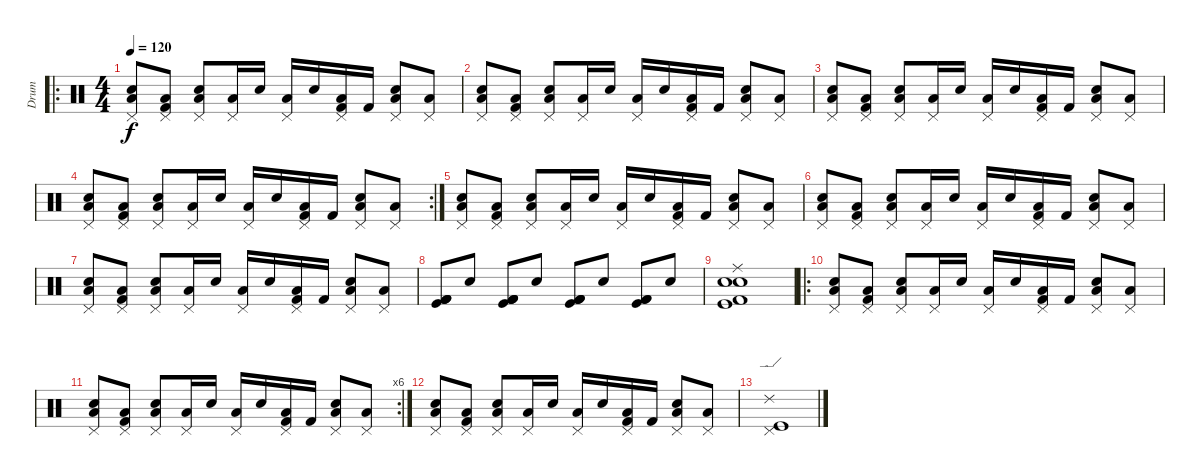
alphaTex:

\track ("Drum" "Drum") {instrument percussion}
\staff {score}
\articulation defaults
\ro
\ts (4 4)
\tempo 120
\clef neutral
\ks c
("Pedal Hi-Hat (hit)" "Low Floor Tom (hit)" "Snare (hit) 2").8{dy f} ("Pedal Hi-Hat (hit)" "Low Floor Tom (hit)" "Kick (hit) 2").8 ("Pedal Hi-Hat (hit)" "Low Floor Tom (hit)" "Snare (hit) 2").8 ("Pedal Hi-Hat (hit)" "Low Floor Tom (hit)").16 "Snare (hit) 2".16 ("Pedal Hi-Hat (hit)" "Low Floor Tom (hit)").16 "Snare (hit) 2".16 ("Pedal Hi-Hat (hit)" "Low Floor Tom (hit)" "Kick (hit) 2").16 "Kick (hit) 2".16 ("Pedal Hi-Hat (hit)" "Low Floor Tom (hit)" "Snare (hit) 2").8 ("Pedal Hi-Hat (hit)" "Low Floor Tom (hit)").8 |
("Pedal Hi-Hat (hit)" "Low Floor Tom (hit)" "Snare (hit) 2").8 ("Pedal Hi-Hat (hit)" "Low Floor Tom (hit)" "Kick (hit) 2").8 ("Pedal Hi-Hat (hit)" "Low Floor Tom (hit)" "Snare (hit) 2").8 ("Pedal Hi-Hat (hit)" "Low Floor Tom (hit)").16 "Snare (hit) 2".16 ("Pedal Hi-Hat (hit)" "Low Floor Tom (hit)").16 "Snare (hit) 2".16 ("Pedal Hi-Hat (hit)" "Low Floor Tom (hit)" "Kick (hit) 2").16 "Kick (hit) 2".16 ("Pedal Hi-Hat (hit)" "Low Floor Tom (hit)" "Snare (hit) 2").8 ("Pedal Hi-Hat (hit)" "Low Floor Tom (hit)").8 |
("Pedal Hi-Hat (hit)" "Low Floor Tom (hit)" "Snare (hit) 2").8 ("Pedal Hi-Hat (hit)" "Low Floor Tom (hit)" "Kick (hit) 2").8 ("Pedal Hi-Hat (hit)" "Low Floor Tom (hit)" "Snare (hit) 2").8 ("Pedal Hi-Hat (hit)" "Low Floor Tom (hit)").16 "Snare (hit) 2".16 ("Pedal Hi-Hat (hit)" "Low Floor Tom (hit)").16 "Snare (hit) 2".16 ("Pedal Hi-Hat (hit)" "Low Floor Tom (hit)" "Kick (hit) 2").16 "Kick (hit) 2".16 ("Pedal Hi-Hat (hit)" "Low Floor Tom (hit)" "Snare (hit) 2").8 ("Pedal Hi-Hat (hit)" "Low Floor Tom (hit)").8 |
\rc 2
("Pedal Hi-Hat (hit)" "Low Floor Tom (hit)" "Snare (hit) 2").8 ("Pedal Hi-Hat (hit)" "Low Floor Tom (hit)" "Kick (hit) 2").8 ("Pedal Hi-Hat (hit)" "Low Floor Tom (hit)" "Snare (hit) 2").8 ("Pedal Hi-Hat (hit)" "Low Floor Tom (hit)").16 "Snare (hit) 2".16 ("Pedal Hi-Hat (hit)" "Low Floor Tom (hit)").16 "Snare (hit) 2".16 ("Pedal Hi-Hat (hit)" "Low Floor Tom (hit)" "Kick (hit) 2").16 "Kick (hit) 2".16 ("Pedal Hi-Hat (hit)" "Low Floor Tom (hit)" "Snare (hit) 2").8 ("Pedal Hi-Hat (hit)" "Low Floor Tom (hit)").8 |
("Pedal Hi-Hat (hit)" "Low Floor Tom (hit)" "Snare (hit) 2").8 ("Pedal Hi-Hat (hit)" "Low Floor Tom (hit)" "Kick (hit) 2").8 ("Pedal Hi-Hat (hit)" "Low Floor Tom (hit)" "Snare (hit) 2").8 ("Pedal Hi-Hat (hit)" "Low Floor Tom (hit)").16 "Snare (hit) 2".16 ("Pedal Hi-Hat (hit)" "Low Floor Tom (hit)").16 "Snare (hit) 2".16 ("Pedal Hi-Hat (hit)" "Low Floor Tom (hit)" "Kick (hit) 2").16 "Kick (hit) 2".16 ("Pedal Hi-Hat (hit)" "Low Floor Tom (hit)" "Snare (hit) 2").8 ("Pedal Hi-Hat (hit)" "Low Floor Tom (hit)").8 |
("Pedal Hi-Hat (hit)" "Low Floor Tom (hit)" "Snare (hit) 2").8 ("Pedal Hi-Hat (hit)" "Low Floor Tom (hit)" "Kick (hit) 2").8 ("Pedal Hi-Hat (hit)" "Low Floor Tom (hit)" "Snare (hit) 2").8 ("Pedal Hi-Hat (hit)" "Low Floor Tom (hit)").16 "Snare (hit) 2".16 ("Pedal Hi-Hat (hit)" "Low Floor Tom (hit)").16 "Snare (hit) 2".16 ("Pedal Hi-Hat (hit)" "Low Floor Tom (hit)" "Kick (hit) 2").16 "Kick (hit) 2".16 ("Pedal Hi-Hat (hit)" "Low Floor Tom (hit)" "Snare (hit) 2").8 ("Pedal Hi-Hat (hit)" "Low Floor Tom (hit)").8 |
("Pedal Hi-Hat (hit)" "Low Floor Tom (hit)" "Snare (hit) 2").8 ("Pedal Hi-Hat (hit)" "Low Floor Tom (hit)" "Kick (hit) 2").8 ("Pedal Hi-Hat (hit)" "Low Floor Tom (hit)" "Snare (hit) 2").8 ("Pedal Hi-Hat (hit)" "Low Floor Tom (hit)").16 "Snare (hit) 2".16 ("Pedal Hi-Hat (hit)" "Low Floor Tom (hit)").16 "Snare (hit) 2".16 ("Pedal Hi-Hat (hit)" "Low Floor Tom (hit)" "Kick (hit) 2").16 "Kick (hit) 2".16 ("Pedal Hi-Hat (hit)" "Low Floor Tom (hit)" "Snare (hit) 2").8 ("Pedal Hi-Hat (hit)" "Low Floor Tom (hit)").8 |
("Kick (hit)" "Kick (hit) 2" "Kick (hit) 2" "Kick (hit) 2").8 "Electric Snare (hit)".8 ("Kick (hit)" "Kick (hit) 2" "Kick (hit) 2" "Kick (hit) 2").8 "Electric Snare (hit)".8 ("Kick (hit)" "Kick (hit) 2" "Kick (hit) 2" "Kick (hit) 2").8 "Electric Snare (hit)".8 ("Kick (hit)" "Kick (hit) 2" "Kick (hit) 2").8 "Electric Snare (hit)".8 |
("Kick (hit)" "Ride (middle)" "Kick (hit) 2" "Electric Snare (hit)" "Snare (hit) 2").1 |
\ro
("Pedal Hi-Hat (hit)" "Low Floor Tom (hit)" "Snare (hit) 2").8 ("Pedal Hi-Hat (hit)" "Low Floor Tom (hit)" "Kick (hit) 2").8 ("Pedal Hi-Hat (hit)" "Low Floor Tom (hit)" "Snare (hit) 2").8 ("Pedal Hi-Hat (hit)" "Low Floor Tom (hit)").16 "Snare (hit) 2".16 ("Pedal Hi-Hat (hit)" "Low Floor Tom (hit)").16 "Snare (hit) 2".16 ("Pedal Hi-Hat (hit)" "Low Floor Tom (hit)" "Kick (hit) 2").16 "Kick (hit) 2".16 ("Pedal Hi-Hat (hit)" "Low Floor Tom (hit)" "Snare (hit) 2").8 ("Pedal Hi-Hat (hit)" "Low Floor Tom (hit)").8 |
\rc 6
("Pedal Hi-Hat (hit)" "Low Floor Tom (hit)" "Snare (hit) 2").8 ("Pedal Hi-Hat (hit)" "Low Floor Tom (hit)" "Kick (hit) 2").8 ("Pedal Hi-Hat (hit)" "Low Floor Tom (hit)" "Snare (hit) 2").8 ("Pedal Hi-Hat (hit)" "Low Floor Tom (hit)").16 "Snare (hit) 2".16 ("Pedal Hi-Hat (hit)" "Low Floor Tom (hit)").16 "Snare (hit) 2".16 ("Pedal Hi-Hat (hit)" "Low Floor Tom (hit)" "Kick (hit) 2").16 "Kick (hit) 2".16 ("Pedal Hi-Hat (hit)" "Low Floor Tom (hit)" "Snare (hit) 2").8 ("Pedal Hi-Hat (hit)" "Low Floor Tom (hit)").8 |
("Pedal Hi-Hat (hit)" "Low Floor Tom (hit)" "Snare (hit) 2").8 ("Pedal Hi-Hat (hit)" "Low Floor Tom (hit)" "Kick (hit) 2").8 ("Pedal Hi-Hat (hit)" "Low Floor Tom (hit)" "Snare (hit) 2").8 ("Pedal Hi-Hat (hit)" "Low Floor Tom (hit)").16 "Snare (hit) 2".16 ("Pedal Hi-Hat (hit)" "Low Floor Tom (hit)").16 "Snare (hit) 2".16 ("Pedal Hi-Hat (hit)" "Low Floor Tom (hit)" "Kick (hit) 2").16 "Kick (hit) 2".16 ("Pedal Hi-Hat (hit)" "Low Floor Tom (hit)" "Snare (hit) 2").8 ("Pedal Hi-Hat (hit)" "Low Floor Tom (hit)").8 |
("Ride (edge) 2" "Pedal Hi-Hat (hit)" "Kick (hit)").1
